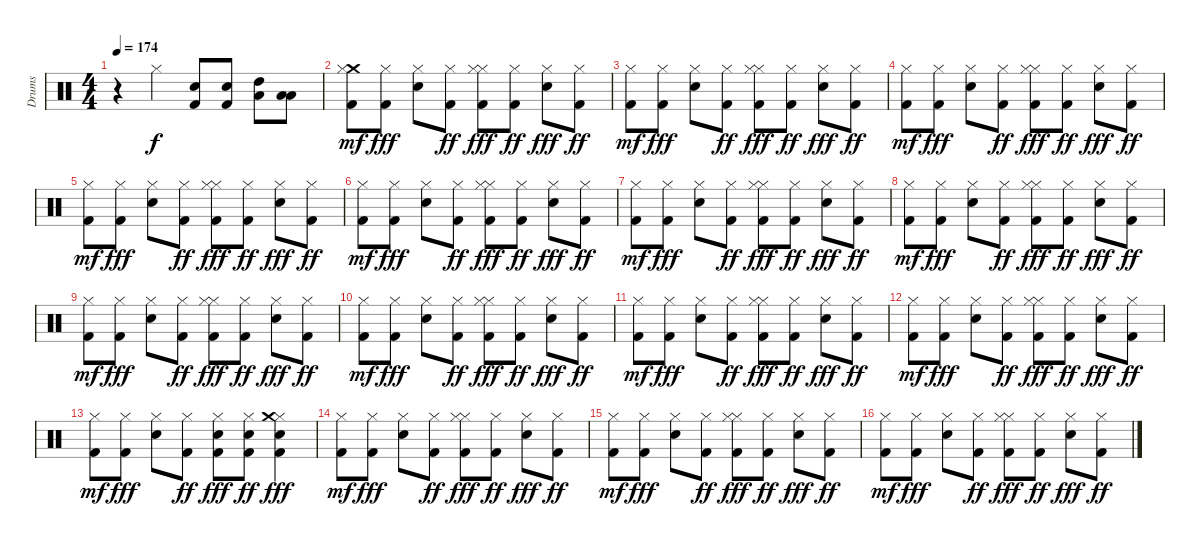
\track ("Drums" "Drums") {instrument percussion}
\staff {score}
\articulation defaults
\ts (4 4)
\tempo 174
\clef neutral
\ks c
r.4{dy f} "Hi-Hat (closed)".4 ("Snare (hit) 2" "Kick (hit) 2").8 ("Snare (hit) 2" "Kick (hit) 2").8 ("Low Tom (hit)" "High Tom (hit)").8 ("Low Tom (hit)" "Low Floor Tom (hit)").8 |
("Crash medium (hit)" "Hi-Hat (closed)" "Kick (hit) 2").8{dy mf} ("Hi-Hat (closed)" "Kick (hit) 2").8{dy fff} ("Hi-Hat (closed)" "Snare (hit) 2").8 ("Hi-Hat (closed)" "Kick (hit) 2").8{dy ff} ("Hi-Hat (closed)" "Hi-Hat (closed)" "Kick (hit) 2").8{dy fff} ("Hi-Hat (closed)" "Kick (hit) 2").8{dy ff} ("Hi-Hat (closed)" "Snare (hit) 2").8{dy fff} ("Hi-Hat (closed)" "Kick (hit) 2").8{dy ff} |
("Kick (hit) 2" "Hi-Hat (closed)").8{dy mf} ("Hi-Hat (closed)" "Kick (hit) 2").8{dy fff} ("Hi-Hat (closed)" "Snare (hit) 2").8 ("Hi-Hat (closed)" "Kick (hit) 2").8{dy ff} ("Hi-Hat (closed)" "Hi-Hat (closed)" "Kick (hit) 2").8{dy fff} ("Hi-Hat (closed)" "Kick (hit) 2").8{dy ff} ("Hi-Hat (closed)" "Snare (hit) 2").8{dy fff} ("Hi-Hat (closed)" "Kick (hit) 2").8{dy ff} |
("Kick (hit) 2" "Hi-Hat (closed)").8{dy mf} ("Hi-Hat (closed)" "Kick (hit) 2").8{dy fff} ("Hi-Hat (closed)" "Snare (hit) 2").8 ("Hi-Hat (closed)" "Kick (hit) 2").8{dy ff} ("Hi-Hat (closed)" "Hi-Hat (closed)" "Kick (hit) 2").8{dy fff} ("Hi-Hat (closed)" "Kick (hit) 2").8{dy ff} ("Hi-Hat (closed)" "Snare (hit) 2").8{dy fff} ("Hi-Hat (closed)" "Kick (hit) 2").8{dy ff} |
("Kick (hit) 2" "Hi-Hat (closed)").8{dy mf} ("Hi-Hat (closed)" "Kick (hit) 2").8{dy fff} ("Hi-Hat (closed)" "Snare (hit) 2").8 ("Hi-Hat (closed)" "Kick (hit) 2").8{dy ff} ("Hi-Hat (closed)" "Hi-Hat (closed)" "Kick (hit) 2").8{dy fff} ("Hi-Hat (closed)" "Kick (hit) 2").8{dy ff} ("Hi-Hat (closed)" "Snare (hit) 2").8{dy fff} ("Hi-Hat (closed)" "Kick (hit) 2").8{dy ff} |
("Kick (hit) 2" "Hi-Hat (closed)").8{dy mf} ("Hi-Hat (closed)" "Kick (hit) 2").8{dy fff} ("Hi-Hat (closed)" "Snare (hit) 2").8 ("Hi-Hat (closed)" "Kick (hit) 2").8{dy ff} ("Hi-Hat (closed)" "Hi-Hat (closed)" "Kick (hit) 2").8{dy fff} ("Hi-Hat (closed)" "Kick (hit) 2").8{dy ff} ("Hi-Hat (closed)" "Snare (hit) 2").8{dy fff} ("Hi-Hat (closed)" "Kick (hit) 2").8{dy ff} |
("Kick (hit) 2" "Hi-Hat (closed)").8{dy mf} ("Hi-Hat (closed)" "Kick (hit) 2").8{dy fff} ("Hi-Hat (closed)" "Snare (hit) 2").8 ("Hi-Hat (closed)" "Kick (hit) 2").8{dy ff} ("Hi-Hat (closed)" "Hi-Hat (closed)" "Kick (hit) 2").8{dy fff} ("Hi-Hat (closed)" "Kick (hit) 2").8{dy ff} ("Hi-Hat (closed)" "Snare (hit) 2").8{dy fff} ("Hi-Hat (closed)" "Kick (hit) 2").8{dy ff} |
("Kick (hit) 2" "Hi-Hat (closed)").8{dy mf} ("Hi-Hat (closed)" "Kick (hit) 2").8{dy fff} ("Hi-Hat (closed)" "Snare (hit) 2").8 ("Hi-Hat (closed)" "Kick (hit) 2").8{dy ff} ("Hi-Hat (closed)" "Hi-Hat (closed)" "Kick (hit) 2").8{dy fff} ("Hi-Hat (closed)" "Kick (hit) 2").8{dy ff} ("Hi-Hat (closed)" "Snare (hit) 2").8{dy fff} ("Hi-Hat (closed)" "Kick (hit) 2").8{dy ff} |
("Kick (hit) 2" "Hi-Hat (closed)").8{dy mf} ("Hi-Hat (closed)" "Kick (hit) 2").8{dy fff} ("Hi-Hat (closed)" "Snare (hit) 2").8 ("Hi-Hat (closed)" "Kick (hit) 2").8{dy ff} ("Hi-Hat (closed)" "Hi-Hat (closed)" "Kick (hit) 2").8{dy fff} ("Hi-Hat (closed)" "Kick (hit) 2").8{dy ff} ("Hi-Hat (closed)" "Snare (hit) 2").8{dy fff} ("Hi-Hat (closed)" "Kick (hit) 2").8{dy ff} |
("Kick (hit) 2" "Hi-Hat (closed)").8{dy mf} ("Hi-Hat (closed)" "Kick (hit) 2").8{dy fff} ("Hi-Hat (closed)" "Snare (hit) 2").8 ("Hi-Hat (closed)" "Kick (hit) 2").8{dy ff} ("Hi-Hat (closed)" "Hi-Hat (closed)" "Kick (hit) 2").8{dy fff} ("Hi-Hat (closed)" "Kick (hit) 2").8{dy ff} ("Hi-Hat (closed)" "Snare (hit) 2").8{dy fff} ("Hi-Hat (closed)" "Kick (hit) 2").8{dy ff} |
("Kick (hit) 2" "Hi-Hat (closed)").8{dy mf} ("Hi-Hat (closed)" "Kick (hit) 2").8{dy fff} ("Hi-Hat (closed)" "Snare (hit) 2").8 ("Hi-Hat (closed)" "Kick (hit) 2").8{dy ff} ("Hi-Hat (closed)" "Hi-Hat (closed)" "Kick (hit) 2").8{dy fff} ("Hi-Hat (closed)" "Kick (hit) 2").8{dy ff} ("Hi-Hat (closed)" "Snare (hit) 2").8{dy fff} ("Hi-Hat (closed)" "Kick (hit) 2").8{dy ff} |
("Kick (hit) 2" "Hi-Hat (closed)").8{dy mf} ("Hi-Hat (closed)" "Kick (hit) 2").8{dy fff} ("Hi-Hat (closed)" "Snare (hit) 2").8 ("Hi-Hat (closed)" "Kick (hit) 2").8{dy ff} ("Hi-Hat (closed)" "Hi-Hat (closed)" "Kick (hit) 2").8{dy fff} ("Hi-Hat (closed)" "Kick (hit) 2").8{dy ff} ("Hi-Hat (closed)" "Snare (hit) 2").8{dy fff} ("Hi-Hat (closed)" "Kick (hit) 2").8{dy ff} |
("Kick (hit) 2" "Hi-Hat (closed)").8{dy mf} ("Hi-Hat (closed)" "Kick (hit) 2").8{dy fff} ("Hi-Hat (closed)" "Snare (hit) 2").8 ("Hi-Hat (closed)" "Kick (hit) 2").8{dy ff} ("Hi-Hat (closed)" "Snare (hit) 2" "Kick (hit) 2").8{dy fff} ("Hi-Hat (closed)" "Snare (hit) 2" "Kick (hit) 2").8{dy ff} ("Hi-Hat (closed)" "Snare (hit) 2" "Kick (hit) 2" "Crash medium (hit)").4{dy fff} |
("Kick (hit) 2" "Hi-Hat (closed)").8{dy mf} ("Hi-Hat (closed)" "Kick (hit) 2").8{dy fff} ("Hi-Hat (closed)" "Snare (hit) 2").8 ("Hi-Hat (closed)" "Kick (hit) 2").8{dy ff} ("Hi-Hat (closed)" "Hi-Hat (closed)" "Kick (hit) 2").8{dy fff} ("Hi-Hat (closed)" "Kick (hit) 2").8{dy ff} ("Hi-Hat (closed)" "Snare (hit) 2").8{dy fff} ("Hi-Hat (closed)" "Kick (hit) 2").8{dy ff} |
("Kick (hit) 2" "Hi-Hat (closed)").8{dy mf} ("Hi-Hat (closed)" "Kick (hit) 2").8{dy fff} ("Hi-Hat (closed)" "Snare (hit) 2").8 ("Hi-Hat (closed)" "Kick (hit) 2").8{dy ff} ("Hi-Hat (closed)" "Hi-Hat (closed)" "Kick (hit) 2").8{dy fff} ("Hi-Hat (closed)" "Kick (hit) 2").8{dy ff} ("Hi-Hat (closed)" "Snare (hit) 2").8{dy fff} ("Hi-Hat (closed)" "Kick (hit) 2").8{dy ff} |
("Kick (hit) 2" "Hi-Hat (closed)").8{dy mf} ("Hi-Hat (closed)" "Kick (hit) 2").8{dy fff} ("Hi-Hat (closed)" "Snare (hit) 2").8 ("Hi-Hat (closed)" "Kick (hit) 2").8{dy ff} ("Hi-Hat (closed)" "Hi-Hat (closed)" "Kick (hit) 2").8{dy fff} ("Hi-Hat (closed)" "Kick (hit) 2").8{dy ff} ("Hi-Hat (closed)" "Snare (hit) 2").8{dy fff} ("Hi-Hat (closed)" "Kick (hit) 2").8{dy ff}
